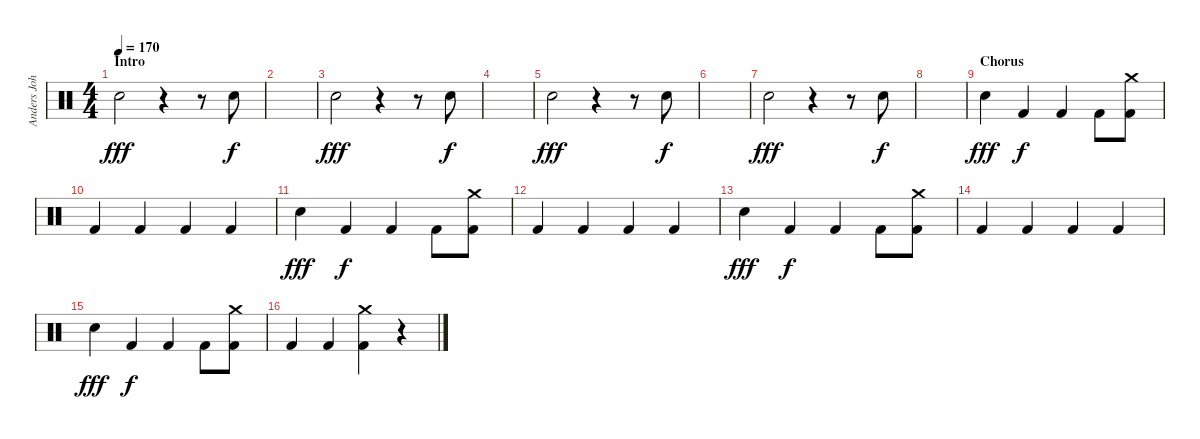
\track ("Anders Johansson" "Anders Joh") {instrument percussion}
\staff {score}
\articulation defaults
\ts (4 4)
\section ("" "Intro")
\tempo 170
\clef neutral
\ks c "Snare (hit) 2".2{dy fff}
r.4 r.8 "Snare (hit) 2".8{dy f} |
|
"Snare (hit) 2".2{dy fff} r.4 r.8 "Snare (hit) 2".8{dy f} |
|
"Snare (hit) 2".2{dy fff} r.4 r.8 "Snare (hit) 2".8{dy f} |
|
"Snare (hit) 2".2{dy fff} r.4 r.8 "Snare (hit) 2".8{dy f} |
|
\section ("" "Chorus")
"Snare (hit) 2".4{dy fff} "Kick (hit) 2".4{dy f} "Kick (hit) 2".4 "Kick (hit) 2".8 ("Crash medium (hit)" "Kick (hit) 2").8 |
"Kick (hit) 2".4 "Kick (hit) 2".4 "Kick (hit) 2".4 "Kick (hit) 2".4 |
"Snare (hit) 2".4{dy fff} "Kick (hit) 2".4{dy f} "Kick (hit) 2".4 "Kick (hit) 2".8 ("Crash medium (hit)" "Kick (hit) 2").8 |
"Kick (hit) 2".4 "Kick (hit) 2".4 "Kick (hit) 2".4 "Kick (hit) 2".4 |
"Snare (hit) 2".4{dy fff} "Kick (hit) 2".4{dy f} "Kick (hit) 2".4 "Kick (hit) 2".8 ("Crash medium (hit)" "Kick (hit) 2").8 |
"Kick (hit) 2".4 "Kick (hit) 2".4 "Kick (hit) 2".4 "Kick (hit) 2".4 |
"Snare (hit) 2".4{dy fff} "Kick (hit) 2".4{dy f} "Kick (hit) 2".4 "Kick (hit) 2".8 ("Crash medium (hit)" "Kick (hit) 2").8 |
"Kick (hit) 2".4 "Kick (hit) 2".4 ("Crash medium (hit)" "Kick (hit) 2").4 r.4
